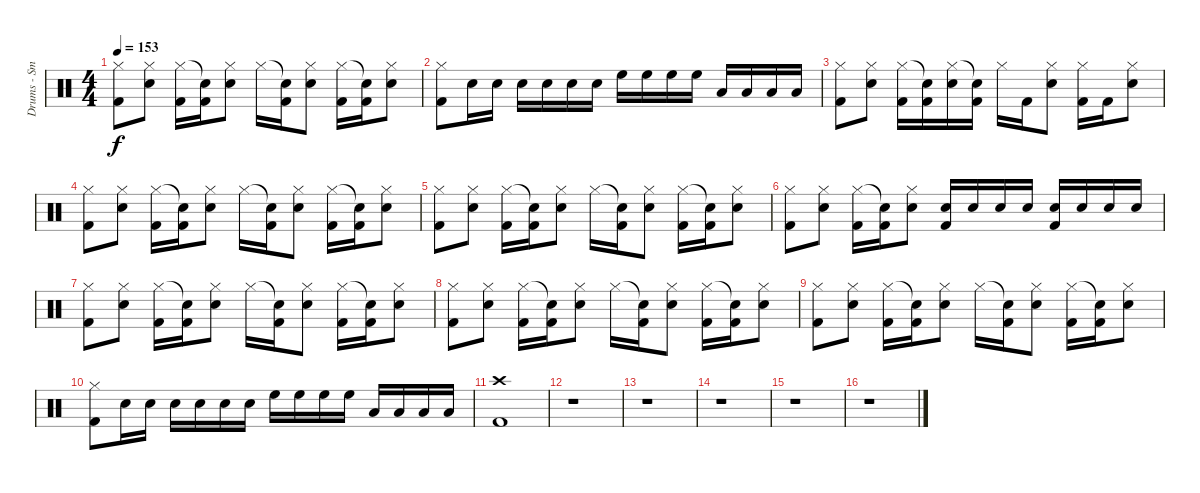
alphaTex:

\track ("Drums - Smelly" "Drums - Sm") {instrument percussion}
\staff {score}
\articulation defaults
\ts (4 4)
\tempo 153
\clef neutral
\ks c
("Hi-Hat (closed)" "Kick (hit) 2").8{dy f} ("Hi-Hat (closed)" "Snare (hit) 2").8 ("Hi-Hat (closed)" "Kick (hit) 2").16 ("Snare (hit)"{t} "Kick (hit) 2").16 ("Hi-Hat (closed)" "Snare (hit) 2").8 "Hi-Hat (closed)".16 ("Snare (hit)"{t} "Kick (hit) 2").16 ("Hi-Hat (closed)" "Snare (hit) 2").8 ("Hi-Hat (closed)" "Kick (hit) 2").16 ("Snare (hit)"{t} "Kick (hit) 2").16 ("Hi-Hat (closed)" "Snare (hit) 2").8 |
("Hi-Hat (closed)" "Kick (hit) 2").8 "Snare (hit) 2".16 "Snare (hit) 2".16 "Snare (hit) 2".16 "Snare (hit) 2".16 "Snare (hit) 2".16 "Snare (hit) 2".16 "High Floor Tom (hit)".16 "High Floor Tom (hit)".16 "High Floor Tom (hit)".16 "High Floor Tom (hit)".16 "Low Floor Tom (hit)".16 "Low Floor Tom (hit)".16 "Low Floor Tom (hit)".16 "Low Floor Tom (hit)".16 |
("Hi-Hat (closed)" "Kick (hit) 2").8 ("Hi-Hat (closed)" "Snare (hit) 2").8 ("Hi-Hat (closed)" "Kick (hit) 2").16 ("Snare (hit)"{t} "Kick (hit) 2").16 ("Hi-Hat (closed)" "Snare (hit) 2").16 ("Snare (hit)"{t} "Kick (hit) 2").16 "Hi-Hat (closed)".16 "Kick (hit) 2".16 ("Hi-Hat (closed)" "Snare (hit) 2").8 ("Hi-Hat (closed)" "Kick (hit) 2").16 "Kick (hit) 2".16 ("Hi-Hat (closed)" "Snare (hit) 2").8 |
("Hi-Hat (closed)" "Kick (hit) 2").8 ("Hi-Hat (closed)" "Snare (hit) 2").8 ("Hi-Hat (closed)" "Kick (hit) 2").16 ("Snare (hit)"{t} "Kick (hit) 2").16 ("Hi-Hat (closed)" "Snare (hit) 2").8 "Hi-Hat (closed)".16 ("Snare (hit)"{t} "Kick (hit) 2").16 ("Hi-Hat (closed)" "Snare (hit) 2").8 ("Hi-Hat (closed)" "Kick (hit) 2").16 ("Snare (hit)"{t} "Kick (hit) 2").16 ("Hi-Hat (closed)" "Snare (hit) 2").8 |
("Hi-Hat (closed)" "Kick (hit) 2").8 ("Hi-Hat (closed)" "Snare (hit) 2").8 ("Hi-Hat (closed)" "Kick (hit) 2").16 ("Snare (hit)"{t} "Kick (hit) 2").16 ("Hi-Hat (closed)" "Snare (hit) 2").8 "Hi-Hat (closed)".16 ("Snare (hit)"{t} "Kick (hit) 2").16 ("Hi-Hat (closed)" "Snare (hit) 2").8 ("Hi-Hat (closed)" "Kick (hit) 2").16 ("Snare (hit)"{t} "Kick (hit) 2").16 ("Hi-Hat (closed)" "Snare (hit) 2").8 |
("Hi-Hat (closed)" "Kick (hit) 2").8 ("Hi-Hat (closed)" "Snare (hit) 2").8 ("Hi-Hat (closed)" "Kick (hit) 2").16 ("Snare (hit)"{t} "Kick (hit) 2").16 ("Hi-Hat (closed)" "Snare (hit) 2").8 ("Snare (hit) 2" "Kick (hit) 2").16 "Snare (hit) 2".16 "Snare (hit) 2".16 "Snare (hit) 2".16 ("Snare (hit) 2" "Kick (hit) 2").16 "Snare (hit) 2".16 "Snare (hit) 2".16 "Snare (hit) 2".16 |
("Hi-Hat (closed)" "Kick (hit) 2").8 ("Hi-Hat (closed)" "Snare (hit) 2").8 ("Hi-Hat (closed)" "Kick (hit) 2").16 ("Snare (hit)"{t} "Kick (hit) 2").16 ("Hi-Hat (closed)" "Snare (hit) 2").8 "Hi-Hat (closed)".16 ("Snare (hit)"{t} "Kick (hit) 2").16 ("Hi-Hat (closed)" "Snare (hit) 2").8 ("Hi-Hat (closed)" "Kick (hit) 2").16 ("Snare (hit)"{t} "Kick (hit) 2").16 ("Hi-Hat (closed)" "Snare (hit) 2").8 |
("Hi-Hat (closed)" "Kick (hit) 2").8 ("Hi-Hat (closed)" "Snare (hit) 2").8 ("Hi-Hat (closed)" "Kick (hit) 2").16 ("Snare (hit)"{t} "Kick (hit) 2").16 ("Hi-Hat (closed)" "Snare (hit) 2").8 "Hi-Hat (closed)".16 ("Snare (hit)"{t} "Kick (hit) 2").16 ("Hi-Hat (closed)" "Snare (hit) 2").8 ("Hi-Hat (closed)" "Kick (hit) 2").16 ("Snare (hit)"{t} "Kick (hit) 2").16 ("Hi-Hat (closed)" "Snare (hit) 2").8 |
("Hi-Hat (closed)" "Kick (hit) 2").8 ("Hi-Hat (closed)" "Snare (hit) 2").8 ("Hi-Hat (closed)" "Kick (hit) 2").16 ("Snare (hit)"{t} "Kick (hit) 2").16 ("Hi-Hat (closed)" "Snare (hit) 2").8 "Hi-Hat (closed)".16 ("Snare (hit)"{t} "Kick (hit) 2").16 ("Hi-Hat (closed)" "Snare (hit) 2").8 ("Hi-Hat (closed)" "Kick (hit) 2").16 ("Snare (hit)"{t} "Kick (hit) 2").16 ("Hi-Hat (closed)" "Snare (hit) 2").8 |
("Hi-Hat (closed)" "Kick (hit) 2").8 "Snare (hit) 2".16 "Snare (hit) 2".16 "Snare (hit) 2".16 "Snare (hit) 2".16 "Snare (hit) 2".16 "Snare (hit) 2".16 "High Floor Tom (hit)".16 "High Floor Tom (hit)".16 "High Floor Tom (hit)".16 "High Floor Tom (hit)".16 "Low Floor Tom (hit)".16 "Low Floor Tom (hit)".16 "Low Floor Tom (hit)".16 "Low Floor Tom (hit)".16 |
("Crash high (hit)" "Kick (hit) 2").1 |
r.1 |
r.1 |
r.1 |
r.1 |
r.1
